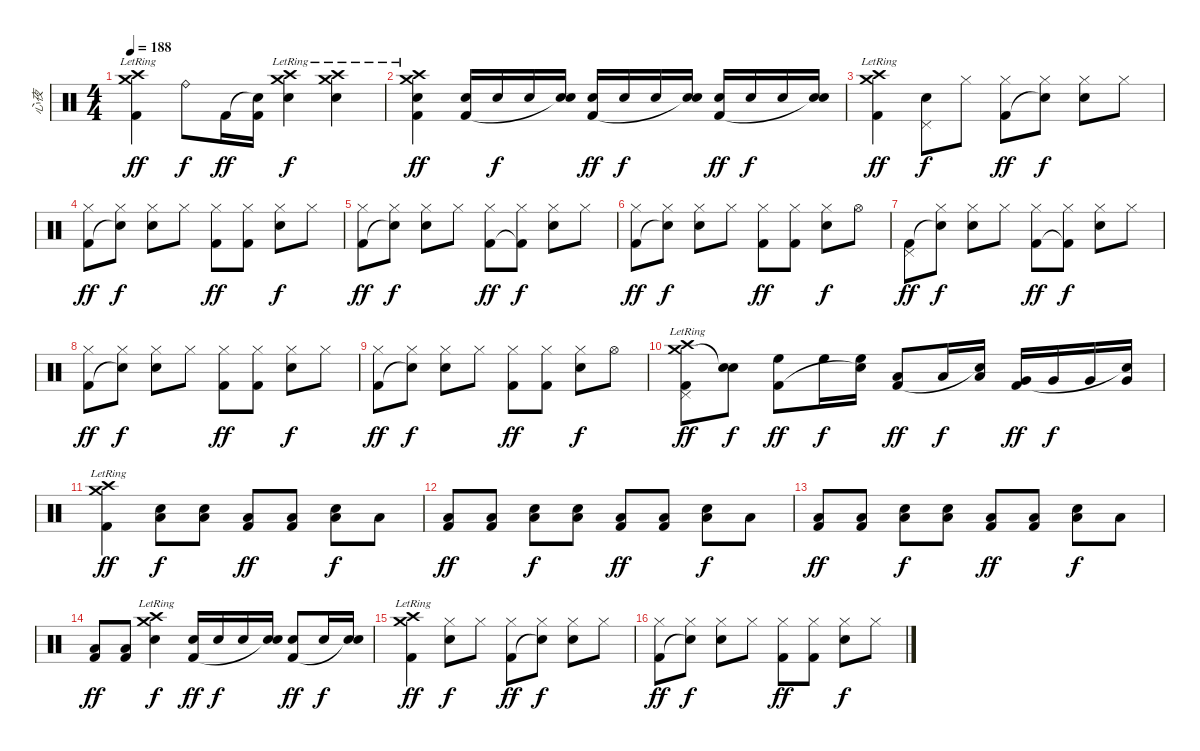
\track ("心夜" "心夜") {instrument percussion}
\staff {score}
\articulation defaults
\ts (4 4)
\tempo 188
\clef neutral
\ks c
("Crash medium (hit)"{lr} "Crash high (hit)"{lr} "Kick (hit) 2").4{dy ff} "Ride (bell)".8{dy f} "Kick (hit) 2".16{dy ff} ("Snare (hit)"{t} "Kick (hit) 2").16 ("Crash medium (hit)"{lr} "Electric Snare (hit)" "Crash high (hit)"{lr}).4{dy f} ("Crash medium (hit)"{lr} "Electric Snare (hit)" "Crash high (hit)"{lr}).4 |
("Crash medium (hit)"{lr} "Electric Snare (hit)" "Crash high (hit)"{lr} "Kick (hit) 2").4{dy ff} ("Electric Snare (hit)" "Kick (hit) 2").16 "Electric Snare (hit)".16{dy f} "Electric Snare (hit)".16 ("Electric Snare (hit)" "Snare (hit)"{t}).16 ("Electric Snare (hit)" "Kick (hit) 2").16{dy ff} "Electric Snare (hit)".16{dy f} "Electric Snare (hit)".16 ("Electric Snare (hit)" "Snare (hit)"{t}).16 ("Electric Snare (hit)" "Kick (hit) 2").16{dy ff} "Electric Snare (hit)".16{dy f} "Electric Snare (hit)".16 ("Electric Snare (hit)" "Snare (hit)"{t}).16 |
("Crash medium (hit)"{lr} "Crash high (hit)"{lr} "Kick (hit) 2").4{dy ff} ("Pedal Hi-Hat (hit)" "Electric Snare (hit)").8{dy f} "Hi-Hat (closed)".8 ("Hi-Hat (closed)" "Kick (hit) 2").8{dy ff} ("Hi-Hat (closed)" "Snare (hit)"{t}).8{dy f} ("Hi-Hat (closed)" "Electric Snare (hit)").8 "Hi-Hat (closed)".8 |
("Hi-Hat (closed)" "Kick (hit) 2").8{dy ff} ("Hi-Hat (closed)" "Snare (hit)"{t}).8{dy f} ("Hi-Hat (closed)" "Electric Snare (hit)").8 "Hi-Hat (closed)".8 ("Hi-Hat (closed)" "Kick (hit) 2").8{dy ff} ("Hi-Hat (closed)" "Kick (hit) 2").8 ("Hi-Hat (closed)" "Electric Snare (hit)").8{dy f} "Hi-Hat (closed)".8 |
("Hi-Hat (closed)" "Kick (hit) 2").8{dy ff} ("Hi-Hat (closed)" "Snare (hit)"{t}).8{dy f} ("Hi-Hat (closed)" "Electric Snare (hit)").8 "Hi-Hat (closed)".8 ("Hi-Hat (closed)" "Kick (hit) 2").8{dy ff} ("Hi-Hat (closed)" "Kick (hit) 2"{t}).8{dy f} ("Hi-Hat (closed)" "Electric Snare (hit)").8 "Hi-Hat (closed)".8 |
("Hi-Hat (closed)" "Kick (hit) 2").8{dy ff} ("Hi-Hat (closed)" "Snare (hit)"{t}).8{dy f} ("Hi-Hat (closed)" "Electric Snare (hit)").8 "Hi-Hat (closed)".8 ("Hi-Hat (closed)" "Kick (hit) 2").8{dy ff} ("Hi-Hat (closed)" "Kick (hit) 2").8 ("Hi-Hat (closed)" "Electric Snare (hit)").8{dy f} "Hi-Hat (open)".8 |
("Pedal Hi-Hat (hit)" "Kick (hit) 2").8{dy ff} ("Hi-Hat (closed)" "Snare (hit)"{t}).8{dy f} ("Hi-Hat (closed)" "Electric Snare (hit)").8 "Hi-Hat (closed)".8 ("Hi-Hat (closed)" "Kick (hit) 2").8{dy ff} ("Hi-Hat (closed)" "Kick (hit) 2"{t}).8{dy f} ("Hi-Hat (closed)" "Electric Snare (hit)").8 "Hi-Hat (closed)".8 |
("Hi-Hat (closed)" "Kick (hit) 2").8{dy ff} ("Hi-Hat (closed)" "Snare (hit)"{t}).8{dy f} ("Hi-Hat (closed)" "Electric Snare (hit)").8 "Hi-Hat (closed)".8 ("Hi-Hat (closed)" "Kick (hit) 2").8{dy ff} ("Hi-Hat (closed)" "Kick (hit) 2").8 ("Hi-Hat (closed)" "Electric Snare (hit)").8{dy f} "Hi-Hat (closed)".8 |
("Hi-Hat (closed)" "Kick (hit) 2").8{dy ff} ("Hi-Hat (closed)" "Snare (hit)"{t}).8{dy f} ("Hi-Hat (closed)" "Electric Snare (hit)").8 "Hi-Hat (closed)".8 ("Hi-Hat (closed)" "Kick (hit) 2").8{dy ff} ("Hi-Hat (closed)" "Kick (hit) 2").8 ("Hi-Hat (closed)" "Electric Snare (hit)").8{dy f} "Hi-Hat (open)".8 |
("Pedal Hi-Hat (hit)" "Crash medium (hit)"{lr} "Crash high (hit)"{lr} "Kick (hit) 2").8{dy ff} ("Electric Snare (hit)" "Snare (hit)"{t}).8{dy f} ("High Floor Tom (hit)" "Kick (hit) 2").8{dy ff} "High Floor Tom (hit)".16{dy f} ("High Floor Tom (hit)" "Snare (hit)"{t}).16 ("Low Tom (hit)" "Kick (hit) 2").8{dy ff} "Low Tom (hit)".16{dy f} ("Low Tom (hit)" "Snare (hit)"{t}).16 ("Very Low Tom (hit)" "Kick (hit) 2").16{dy ff} "Very Low Tom (hit)".16{dy f} "Very Low Tom (hit)".16 ("Very Low Tom (hit)" "Snare (hit)"{t}).16 |
("Crash medium (hit)"{lr} "Crash high (hit)"{lr} "Kick (hit) 2").4{dy ff} ("Electric Snare (hit)" "Low Floor Tom (hit)").8{dy f} ("Electric Snare (hit)" "Low Floor Tom (hit)").8 ("Low Floor Tom (hit)" "Kick (hit) 2").8{dy ff} ("Low Floor Tom (hit)" "Kick (hit) 2").8 ("Electric Snare (hit)" "Low Floor Tom (hit)").8{dy f} "Low Floor Tom (hit)".8 |
("Low Floor Tom (hit)" "Kick (hit) 2").8{dy ff} ("Low Floor Tom (hit)" "Kick (hit) 2").8 ("Electric Snare (hit)" "Low Floor Tom (hit)").8{dy f} ("Electric Snare (hit)" "Low Floor Tom (hit)").8 ("Low Floor Tom (hit)" "Kick (hit) 2").8{dy ff} ("Low Floor Tom (hit)" "Kick (hit) 2").8 ("Electric Snare (hit)" "Low Floor Tom (hit)").8{dy f} "Low Floor Tom (hit)".8 |
("Low Floor Tom (hit)" "Kick (hit) 2").8{dy ff} ("Low Floor Tom (hit)" "Kick (hit) 2").8 ("Electric Snare (hit)" "Low Floor Tom (hit)").8{dy f} ("Electric Snare (hit)" "Low Floor Tom (hit)").8 ("Low Floor Tom (hit)" "Kick (hit) 2").8{dy ff} ("Low Floor Tom (hit)" "Kick (hit) 2").8 ("Electric Snare (hit)" "Low Floor Tom (hit)").8{dy f} "Low Floor Tom (hit)".8 |
("Low Floor Tom (hit)" "Kick (hit) 2").8{dy ff} ("Low Floor Tom (hit)" "Kick (hit) 2").8 ("Crash medium (hit)"{lr} "Electric Snare (hit)" "Crash high (hit)"{lr}).4{dy f} ("Electric Snare (hit)" "Kick (hit) 2").16{dy ff} "Electric Snare (hit)".16{dy f} "Electric Snare (hit)".16 ("Electric Snare (hit)" "Snare (hit)"{t}).16 ("Electric Snare (hit)" "Kick (hit) 2").8{dy ff} "Electric Snare (hit)".16{dy f} ("Electric Snare (hit)" "Snare (hit)"{t}).16 |
("Crash medium (hit)"{lr} "Crash high (hit)"{lr} "Kick (hit) 2").4{dy ff} ("Hi-Hat (closed)" "Electric Snare (hit)").8{dy f} "Hi-Hat (closed)".8 ("Hi-Hat (closed)" "Kick (hit) 2").8{dy ff} ("Hi-Hat (closed)" "Snare (hit)"{t}).8{dy f} ("Hi-Hat (closed)" "Electric Snare (hit)").8 "Hi-Hat (closed)".8 |
("Hi-Hat (closed)" "Kick (hit) 2").8{dy ff} ("Hi-Hat (closed)" "Snare (hit)"{t}).8{dy f} ("Hi-Hat (closed)" "Electric Snare (hit)").8 "Hi-Hat (closed)".8 ("Hi-Hat (closed)" "Kick (hit) 2").8{dy ff} ("Hi-Hat (closed)" "Kick (hit) 2").8 ("Hi-Hat (closed)" "Electric Snare (hit)").8{dy f} "Hi-Hat (closed)".8
